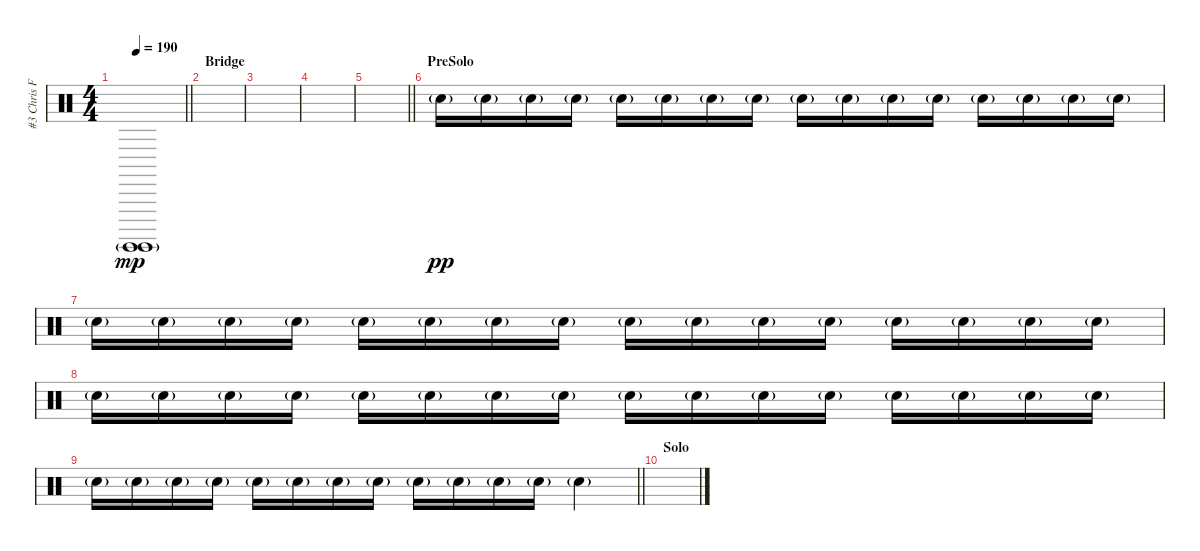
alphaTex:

\track ("#3 Chris Fehn" "#3 Chris F") {instrument percussion}
\staff {score}
\articulation defaults
\ts (4 4)
\tempo 190
\clef neutral
\barLineRight lightlight
\ks c
("Surdo (hit)"{g} "Surdo (hit)"{g}).1{dy mp} |
\section ("" "Bridge")
|
|
|
\barLineRight lightlight
|
\section ("" "PreSolo")
"Electric Snare (hit)"{g}.16{dy pp} "Electric Snare (hit)"{g}.16 "Electric Snare (hit)"{g}.16 "Electric Snare (hit)"{g}.16 "Electric Snare (hit)"{g}.16 "Electric Snare (hit)"{g}.16 "Electric Snare (hit)"{g}.16 "Electric Snare (hit)"{g}.16 "Electric Snare (hit)"{g}.16 "Electric Snare (hit)"{g}.16 "Electric Snare (hit)"{g}.16 "Electric Snare (hit)"{g}.16 "Electric Snare (hit)"{g}.16 "Electric Snare (hit)"{g}.16 "Electric Snare (hit)"{g}.16 "Electric Snare (hit)"{g}.16 |
"Electric Snare (hit)"{g}.16 "Electric Snare (hit)"{g}.16 "Electric Snare (hit)"{g}.16 "Electric Snare (hit)"{g}.16 "Electric Snare (hit)"{g}.16 "Electric Snare (hit)"{g}.16 "Electric Snare (hit)"{g}.16 "Electric Snare (hit)"{g}.16 "Electric Snare (hit)"{g}.16 "Electric Snare (hit)"{g}.16 "Electric Snare (hit)"{g}.16 "Electric Snare (hit)"{g}.16 "Electric Snare (hit)"{g}.16 "Electric Snare (hit)"{g}.16 "Electric Snare (hit)"{g}.16 "Electric Snare (hit)"{g}.16 |
"Electric Snare (hit)"{g}.16 "Electric Snare (hit)"{g}.16 "Electric Snare (hit)"{g}.16 "Electric Snare (hit)"{g}.16 "Electric Snare (hit)"{g}.16 "Electric Snare (hit)"{g}.16 "Electric Snare (hit)"{g}.16 "Electric Snare (hit)"{g}.16 "Electric Snare (hit)"{g}.16 "Electric Snare (hit)"{g}.16 "Electric Snare (hit)"{g}.16 "Electric Snare (hit)"{g}.16 "Electric Snare (hit)"{g}.16 "Electric Snare (hit)"{g}.16 "Electric Snare (hit)"{g}.16 "Electric Snare (hit)"{g}.16 |
\barLineRight lightlight "Electric Snare (hit)"{g}.16 "Electric Snare (hit)"{g}.16 "Electric Snare (hit)"{g}.16 "Electric Snare (hit)"{g}.16 "Electric Snare (hit)"{g}.16 "Electric Snare (hit)"{g}.16 "Electric Snare (hit)"{g}.16 "Electric Snare (hit)"{g}.16 "Electric Snare (hit)"{g}.16 "Electric Snare (hit)"{g}.16 "Electric Snare (hit)"{g}.16 "Electric Snare (hit)"{g}.16 "Electric Snare (hit)"{g}.4
|
\section ("" "Solo")
